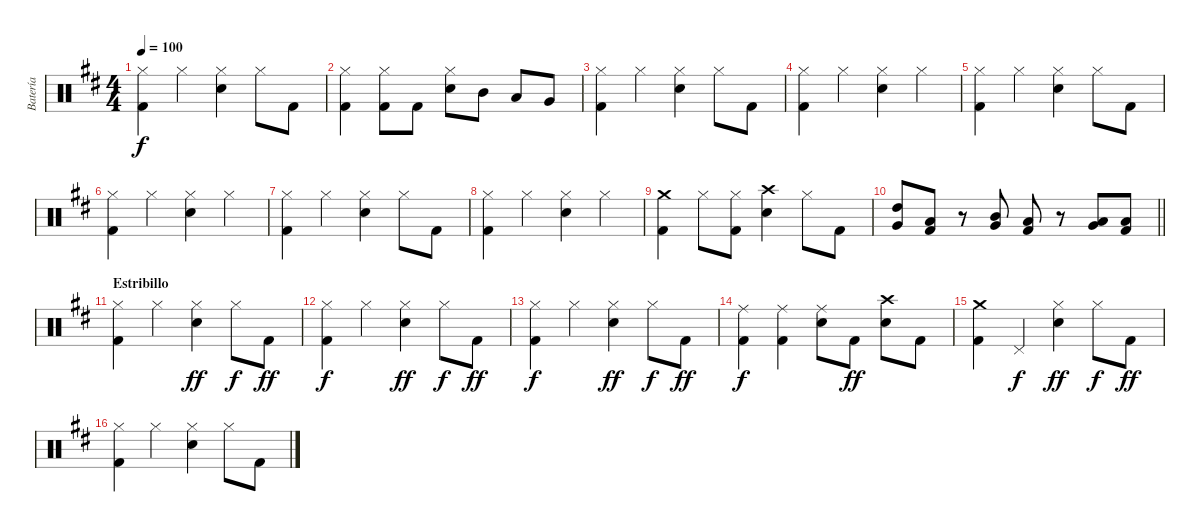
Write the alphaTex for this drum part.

\track ("Batería" "Batería") {instrument percussion}
\staff {score}
\articulation defaults
\ts (4 4)
\tempo 100
\clef neutral
\ks bminor
("Hi-Hat (closed)" "Kick (hit) 2").4{dy f} "Hi-Hat (closed)".4 ("Hi-Hat (closed)" "Snare (hit) 2").4 "Hi-Hat (closed)".8 "Kick (hit) 2".8 |
("Hi-Hat (closed)" "Kick (hit) 2").4 ("Hi-Hat (closed)" "Kick (hit) 2").8 "Kick (hit) 2".8 ("Hi-Hat (closed)" "Snare (hit) 2").8 "Mid Tom (hit)".8 "Low Tom (hit)".8 "Very Low Tom (hit)".8 |
("Hi-Hat (closed)" "Kick (hit) 2").4 "Hi-Hat (closed)".4 ("Hi-Hat (closed)" "Snare (hit) 2").4 "Hi-Hat (closed)".8 "Kick (hit) 2".8 |
("Hi-Hat (closed)" "Kick (hit) 2").4 "Hi-Hat (closed)".4 ("Hi-Hat (closed)" "Snare (hit) 2").4 "Hi-Hat (closed)".4 |
("Hi-Hat (closed)" "Kick (hit) 2").4 "Hi-Hat (closed)".4 ("Hi-Hat (closed)" "Snare (hit) 2").4 "Hi-Hat (closed)".8 "Kick (hit) 2".8 |
("Hi-Hat (closed)" "Kick (hit) 2").4 "Hi-Hat (closed)".4 ("Hi-Hat (closed)" "Snare (hit) 2").4 "Hi-Hat (closed)".4 |
("Hi-Hat (closed)" "Kick (hit) 2").4 "Hi-Hat (closed)".4 ("Hi-Hat (closed)" "Snare (hit) 2").4 "Hi-Hat (closed)".8 "Kick (hit) 2".8 |
("Hi-Hat (closed)" "Kick (hit) 2").4 "Hi-Hat (closed)".4 ("Hi-Hat (closed)" "Snare (hit) 2").4 "Hi-Hat (closed)".4 |
("Crash medium (hit)" "Kick (hit) 2").4 "Hi-Hat (closed)".8 ("Hi-Hat (closed)" "Kick (hit) 2").8 ("Crash high (hit)" "Snare (hit) 2").4 "Hi-Hat (closed)".8 "Kick (hit) 2".8 |
\barLineRight lightlight
("High Tom (hit)" "Very Low Tom (hit)").8 ("Low Floor Tom (hit)" "Kick (hit) 2").8 r.8 ("Mid Tom (hit)" "Very Low Tom (hit)").8 ("Low Floor Tom (hit)" "Kick (hit) 2").8 r.8 ("Low Tom (hit)" "Very Low Tom (hit)").8 ("Low Floor Tom (hit)" "Kick (hit) 2").8 |
\section ("" "Estribillo")
("Hi-Hat (closed)" "Kick (hit) 2").4 "Hi-Hat (closed)".4 ("Hi-Hat (closed)" "Electric Snare (hit)").4{dy ff} "Hi-Hat (closed)".8{dy f} "Kick (hit) 2".8{dy ff} |
("Hi-Hat (closed)" "Kick (hit) 2").4{dy f} "Hi-Hat (closed)".4 ("Hi-Hat (closed)" "Electric Snare (hit)").4{dy ff} "Hi-Hat (closed)".8{dy f} "Kick (hit) 2".8{dy ff} |
("Hi-Hat (closed)" "Kick (hit) 2").4{dy f} "Hi-Hat (closed)".4 ("Hi-Hat (closed)" "Electric Snare (hit)").4{dy ff} "Hi-Hat (closed)".8{dy f} "Kick (hit) 2".8{dy ff} |
("Ride (middle)" "Kick (hit) 2").4{dy f} ("Ride (middle)" "Kick (hit) 2").4 ("Ride (middle)" "Electric Snare (hit)").8 "Kick (hit) 2".8{dy ff} ("Crash high (hit)" "Electric Snare (hit)").8 "Kick (hit) 2".8 |
("Crash medium (hit)" "Kick (hit) 2").4 "Pedal Hi-Hat (hit)".4{dy f} ("Hi-Hat (closed)" "Electric Snare (hit)").4{dy ff} "Hi-Hat (closed)".8{dy f} "Kick (hit) 2".8{dy ff} |
("Hi-Hat (closed)" "Kick (hit) 2").4 "Hi-Hat (closed)".4 ("Hi-Hat (closed)" "Electric Snare (hit)").4 "Hi-Hat (closed)".8 "Kick (hit) 2".8
